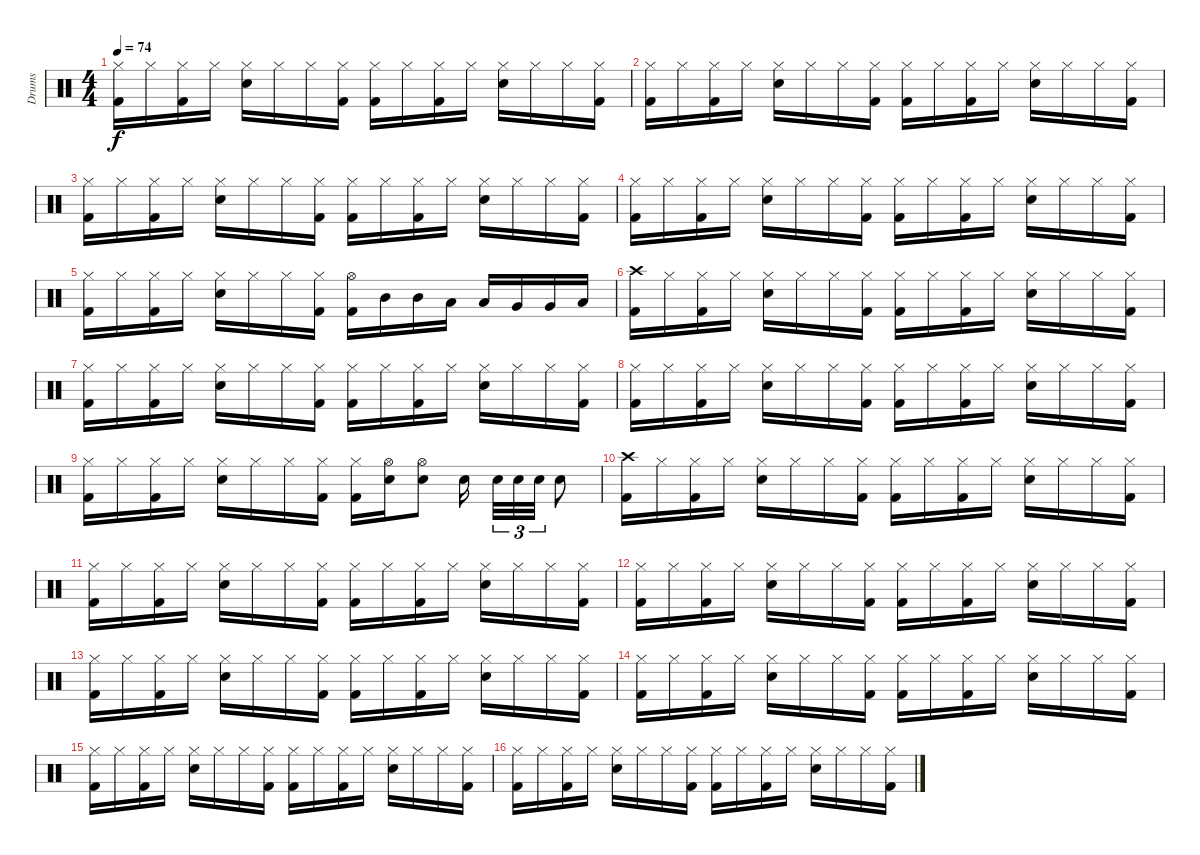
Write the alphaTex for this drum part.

\track ("Drums" "Drums") {instrument percussion}
\staff {score}
\articulation defaults
\ts (4 4)
\tempo 74
\clef neutral
\ks aminor
("Hi-Hat (closed)" "Kick (hit) 2").16{dy f} "Hi-Hat (closed)".16 ("Hi-Hat (closed)" "Kick (hit) 2").16 "Hi-Hat (closed)".16 ("Hi-Hat (closed)" "Snare (hit) 2").16 "Hi-Hat (closed)".16 "Hi-Hat (closed)".16 ("Hi-Hat (closed)" "Kick (hit) 2").16 ("Hi-Hat (closed)" "Kick (hit) 2").16 "Hi-Hat (closed)".16 ("Hi-Hat (closed)" "Kick (hit) 2").16 "Hi-Hat (closed)".16 ("Hi-Hat (closed)" "Snare (hit) 2").16 "Hi-Hat (closed)".16 "Hi-Hat (closed)".16 ("Hi-Hat (closed)" "Kick (hit) 2").16 |
("Hi-Hat (closed)" "Kick (hit) 2").16 "Hi-Hat (closed)".16 ("Hi-Hat (closed)" "Kick (hit) 2").16 "Hi-Hat (closed)".16 ("Hi-Hat (closed)" "Snare (hit) 2").16 "Hi-Hat (closed)".16 "Hi-Hat (closed)".16 ("Hi-Hat (closed)" "Kick (hit) 2").16 ("Hi-Hat (closed)" "Kick (hit) 2").16 "Hi-Hat (closed)".16 ("Hi-Hat (closed)" "Kick (hit) 2").16 "Hi-Hat (closed)".16 ("Hi-Hat (closed)" "Snare (hit) 2").16 "Hi-Hat (closed)".16 "Hi-Hat (closed)".16 ("Hi-Hat (closed)" "Kick (hit) 2").16 |
("Hi-Hat (closed)" "Kick (hit) 2").16 "Hi-Hat (closed)".16 ("Hi-Hat (closed)" "Kick (hit) 2").16 "Hi-Hat (closed)".16 ("Hi-Hat (closed)" "Snare (hit) 2").16 "Hi-Hat (closed)".16 "Hi-Hat (closed)".16 ("Hi-Hat (closed)" "Kick (hit) 2").16 ("Hi-Hat (closed)" "Kick (hit) 2").16 "Hi-Hat (closed)".16 ("Hi-Hat (closed)" "Kick (hit) 2").16 "Hi-Hat (closed)".16 ("Hi-Hat (closed)" "Snare (hit) 2").16 "Hi-Hat (closed)".16 "Hi-Hat (closed)".16 ("Hi-Hat (closed)" "Kick (hit) 2").16 |
("Hi-Hat (closed)" "Kick (hit) 2").16 "Hi-Hat (closed)".16 ("Hi-Hat (closed)" "Kick (hit) 2").16 "Hi-Hat (closed)".16 ("Hi-Hat (closed)" "Snare (hit) 2").16 "Hi-Hat (closed)".16 "Hi-Hat (closed)".16 ("Hi-Hat (closed)" "Kick (hit) 2").16 ("Hi-Hat (closed)" "Kick (hit) 2").16 "Hi-Hat (closed)".16 ("Hi-Hat (closed)" "Kick (hit) 2").16 "Hi-Hat (closed)".16 ("Hi-Hat (closed)" "Snare (hit) 2").16 "Hi-Hat (closed)".16 "Hi-Hat (closed)".16 ("Hi-Hat (closed)" "Kick (hit) 2").16 |
("Hi-Hat (closed)" "Kick (hit) 2").16 "Hi-Hat (closed)".16 ("Hi-Hat (closed)" "Kick (hit) 2").16 "Hi-Hat (closed)".16 ("Hi-Hat (closed)" "Snare (hit) 2").16 "Hi-Hat (closed)".16 "Hi-Hat (closed)".16 ("Hi-Hat (closed)" "Kick (hit) 2").16 ("Hi-Hat (open)" "Kick (hit) 2").16 "Mid Tom (hit)".16 "Mid Tom (hit)".16 "Low Tom (hit)".16 "Low Tom (hit)".16 "Very Low Tom (hit)".16 "Very Low Tom (hit)".16 "Low Floor Tom (hit)".16 |
("Crash high (hit)" "Kick (hit) 2").16 "Hi-Hat (closed)".16 ("Hi-Hat (closed)" "Kick (hit) 2").16 "Hi-Hat (closed)".16 ("Hi-Hat (closed)" "Snare (hit) 2").16 "Hi-Hat (closed)".16 "Hi-Hat (closed)".16 ("Hi-Hat (closed)" "Kick (hit) 2").16 ("Hi-Hat (closed)" "Kick (hit) 2").16 "Hi-Hat (closed)".16 ("Hi-Hat (closed)" "Kick (hit) 2").16 "Hi-Hat (closed)".16 ("Hi-Hat (closed)" "Snare (hit) 2").16 "Hi-Hat (closed)".16 "Hi-Hat (closed)".16 ("Hi-Hat (closed)" "Kick (hit) 2").16 |
("Hi-Hat (closed)" "Kick (hit) 2").16 "Hi-Hat (closed)".16 ("Hi-Hat (closed)" "Kick (hit) 2").16 "Hi-Hat (closed)".16 ("Hi-Hat (closed)" "Snare (hit) 2").16 "Hi-Hat (closed)".16 "Hi-Hat (closed)".16 ("Hi-Hat (closed)" "Kick (hit) 2").16 ("Hi-Hat (closed)" "Kick (hit) 2").16 "Hi-Hat (closed)".16 ("Hi-Hat (closed)" "Kick (hit) 2").16 "Hi-Hat (closed)".16 ("Hi-Hat (closed)" "Snare (hit) 2").16 "Hi-Hat (closed)".16 "Hi-Hat (closed)".16 ("Hi-Hat (closed)" "Kick (hit) 2").16 |
("Hi-Hat (closed)" "Kick (hit) 2").16 "Hi-Hat (closed)".16 ("Hi-Hat (closed)" "Kick (hit) 2").16 "Hi-Hat (closed)".16 ("Hi-Hat (closed)" "Snare (hit) 2").16 "Hi-Hat (closed)".16 "Hi-Hat (closed)".16 ("Hi-Hat (closed)" "Kick (hit) 2").16 ("Hi-Hat (closed)" "Kick (hit) 2").16 "Hi-Hat (closed)".16 ("Hi-Hat (closed)" "Kick (hit) 2").16 "Hi-Hat (closed)".16 ("Hi-Hat (closed)" "Snare (hit) 2").16 "Hi-Hat (closed)".16 "Hi-Hat (closed)".16 ("Hi-Hat (closed)" "Kick (hit) 2").16 |
("Hi-Hat (closed)" "Kick (hit) 2").16 "Hi-Hat (closed)".16 ("Hi-Hat (closed)" "Kick (hit) 2").16 "Hi-Hat (closed)".16 ("Hi-Hat (closed)" "Snare (hit) 2").16 "Hi-Hat (closed)".16 "Hi-Hat (closed)".16 ("Hi-Hat (closed)" "Kick (hit) 2").16 ("Hi-Hat (closed)" "Kick (hit) 2").16 ("Hi-Hat (open)" "Snare (hit) 2").16 ("Hi-Hat (open)" "Snare (hit) 2").8 "Snare (hit) 2".16 "Snare (hit) 2".32{tu (3 2)} "Snare (hit) 2".32{tu (3 2)} "Snare (hit) 2".32{tu (3 2)} "Snare (hit) 2".8 |
("Crash high (hit)" "Kick (hit) 2").16 "Hi-Hat (closed)".16 ("Hi-Hat (closed)" "Kick (hit) 2").16 "Hi-Hat (closed)".16 ("Hi-Hat (closed)" "Snare (hit) 2").16 "Hi-Hat (closed)".16 "Hi-Hat (closed)".16 ("Hi-Hat (closed)" "Kick (hit) 2").16 ("Hi-Hat (closed)" "Kick (hit) 2").16 "Hi-Hat (closed)".16 ("Hi-Hat (closed)" "Kick (hit) 2").16 "Hi-Hat (closed)".16 ("Hi-Hat (closed)" "Snare (hit) 2").16 "Hi-Hat (closed)".16 "Hi-Hat (closed)".16 ("Hi-Hat (closed)" "Kick (hit) 2").16 |
("Hi-Hat (closed)" "Kick (hit) 2").16 "Hi-Hat (closed)".16 ("Hi-Hat (closed)" "Kick (hit) 2").16 "Hi-Hat (closed)".16 ("Hi-Hat (closed)" "Snare (hit) 2").16 "Hi-Hat (closed)".16 "Hi-Hat (closed)".16 ("Hi-Hat (closed)" "Kick (hit) 2").16 ("Hi-Hat (closed)" "Kick (hit) 2").16 "Hi-Hat (closed)".16 ("Hi-Hat (closed)" "Kick (hit) 2").16 "Hi-Hat (closed)".16 ("Hi-Hat (closed)" "Snare (hit) 2").16 "Hi-Hat (closed)".16 "Hi-Hat (closed)".16 ("Hi-Hat (closed)" "Kick (hit) 2").16 |
("Hi-Hat (closed)" "Kick (hit) 2").16 "Hi-Hat (closed)".16 ("Hi-Hat (closed)" "Kick (hit) 2").16 "Hi-Hat (closed)".16 ("Hi-Hat (closed)" "Snare (hit) 2").16 "Hi-Hat (closed)".16 "Hi-Hat (closed)".16 ("Hi-Hat (closed)" "Kick (hit) 2").16 ("Hi-Hat (closed)" "Kick (hit) 2").16 "Hi-Hat (closed)".16 ("Hi-Hat (closed)" "Kick (hit) 2").16 "Hi-Hat (closed)".16 ("Hi-Hat (closed)" "Snare (hit) 2").16 "Hi-Hat (closed)".16 "Hi-Hat (closed)".16 ("Hi-Hat (closed)" "Kick (hit) 2").16 |
("Hi-Hat (closed)" "Kick (hit) 2").16 "Hi-Hat (closed)".16 ("Hi-Hat (closed)" "Kick (hit) 2").16 "Hi-Hat (closed)".16 ("Hi-Hat (closed)" "Snare (hit) 2").16 "Hi-Hat (closed)".16 "Hi-Hat (closed)".16 ("Hi-Hat (closed)" "Kick (hit) 2").16 ("Hi-Hat (closed)" "Kick (hit) 2").16 "Hi-Hat (closed)".16 ("Hi-Hat (closed)" "Kick (hit) 2").16 "Hi-Hat (closed)".16 ("Hi-Hat (closed)" "Snare (hit) 2").16 "Hi-Hat (closed)".16 "Hi-Hat (closed)".16 ("Hi-Hat (closed)" "Kick (hit) 2").16 |
("Hi-Hat (closed)" "Kick (hit) 2").16 "Hi-Hat (closed)".16 ("Hi-Hat (closed)" "Kick (hit) 2").16 "Hi-Hat (closed)".16 ("Hi-Hat (closed)" "Snare (hit) 2").16 "Hi-Hat (closed)".16 "Hi-Hat (closed)".16 ("Hi-Hat (closed)" "Kick (hit) 2").16 ("Hi-Hat (closed)" "Kick (hit) 2").16 "Hi-Hat (closed)".16 ("Hi-Hat (closed)" "Kick (hit) 2").16 "Hi-Hat (closed)".16 ("Hi-Hat (closed)" "Snare (hit) 2").16 "Hi-Hat (closed)".16 "Hi-Hat (closed)".16 ("Hi-Hat (closed)" "Kick (hit) 2").16 |
("Hi-Hat (closed)" "Kick (hit) 2").16 "Hi-Hat (closed)".16 ("Hi-Hat (closed)" "Kick (hit) 2").16 "Hi-Hat (closed)".16 ("Hi-Hat (closed)" "Snare (hit) 2").16 "Hi-Hat (closed)".16 "Hi-Hat (closed)".16 ("Hi-Hat (closed)" "Kick (hit) 2").16 ("Hi-Hat (closed)" "Kick (hit) 2").16 "Hi-Hat (closed)".16 ("Hi-Hat (closed)" "Kick (hit) 2").16 "Hi-Hat (closed)".16 ("Hi-Hat (closed)" "Snare (hit) 2").16 "Hi-Hat (closed)".16 "Hi-Hat (closed)".16 ("Hi-Hat (closed)" "Kick (hit) 2").16 |
("Hi-Hat (closed)" "Kick (hit) 2").16 "Hi-Hat (closed)".16 ("Hi-Hat (closed)" "Kick (hit) 2").16 "Hi-Hat (closed)".16 ("Hi-Hat (closed)" "Snare (hit) 2").16 "Hi-Hat (closed)".16 "Hi-Hat (closed)".16 ("Hi-Hat (closed)" "Kick (hit) 2").16 ("Hi-Hat (closed)" "Kick (hit) 2").16 "Hi-Hat (closed)".16 ("Hi-Hat (closed)" "Kick (hit) 2").16 "Hi-Hat (closed)".16 ("Hi-Hat (closed)" "Snare (hit) 2").16 "Hi-Hat (closed)".16 "Hi-Hat (closed)".16 ("Hi-Hat (closed)" "Kick (hit) 2").16
